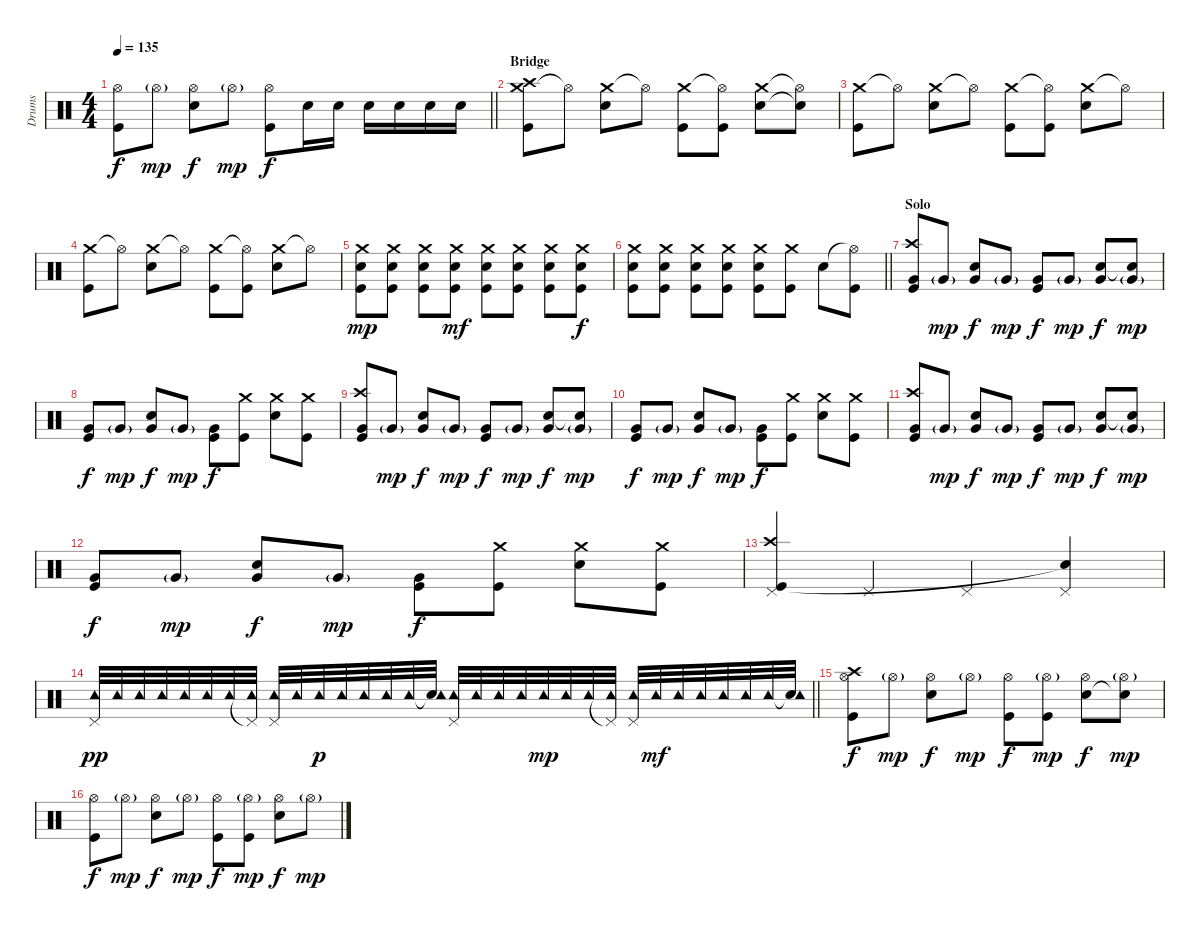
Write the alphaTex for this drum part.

\track ("Drums" "Drums") {instrument percussion}
\staff {score}
\articulation defaults
\ts (4 4)
\tempo 135
\clef neutral
\barLineRight lightlight
\ks c
("Hi-Hat (open)" "Kick (hit)").8{dy f} "Hi-Hat (open)"{g}.8{dy mp} ("Hi-Hat (open)" "Electric Snare (hit)").8{dy f} "Hi-Hat (open)"{g}.8{dy mp} ("Hi-Hat (open)" "Kick (hit)").8{dy f} "Electric Snare (hit)".16 "Electric Snare (hit)".16 "Electric Snare (hit)".16 "Electric Snare (hit)".16 "Electric Snare (hit)".16 "Electric Snare (hit)".16 |
\section ("" "Bridge")
("Crash medium (hit)" "Kick (hit)" "Crash high (hit)").8 "Hi-Hat (open)"{t}.8 ("Crash medium (hit)" "Electric Snare (hit)").8 "Hi-Hat (open)"{t}.8 ("Crash medium (hit)" "Kick (hit)").8 ("Hi-Hat (open)"{t} "Kick (hit)").8 ("Crash medium (hit)" "Electric Snare (hit)").8 ("Hi-Hat (open)"{t} "Snare (hit)"{t}).8 |
("Crash medium (hit)" "Kick (hit)").8 "Hi-Hat (open)"{t}.8 ("Crash medium (hit)" "Electric Snare (hit)").8 "Hi-Hat (open)"{t}.8 ("Crash medium (hit)" "Kick (hit)").8 ("Hi-Hat (open)"{t} "Kick (hit)").8 ("Crash medium (hit)" "Electric Snare (hit)").8 "Hi-Hat (open)"{t}.8 |
("Crash medium (hit)" "Kick (hit)").8 "Hi-Hat (open)"{t}.8 ("Crash medium (hit)" "Electric Snare (hit)").8 "Hi-Hat (open)"{t}.8 ("Crash medium (hit)" "Kick (hit)").8 ("Hi-Hat (open)"{t} "Kick (hit)").8 ("Crash medium (hit)" "Electric Snare (hit)").8 "Hi-Hat (open)"{t}.8 |
("Crash medium (hit)" "Electric Snare (hit)" "Kick (hit)").8{dy mp} ("Crash medium (hit)" "Electric Snare (hit)" "Kick (hit)").8 ("Crash medium (hit)" "Electric Snare (hit)" "Kick (hit)").8 ("Crash medium (hit)" "Electric Snare (hit)" "Kick (hit)").8{dy mf} ("Crash medium (hit)" "Electric Snare (hit)" "Kick (hit)").8 ("Crash medium (hit)" "Electric Snare (hit)" "Kick (hit)").8 ("Crash medium (hit)" "Electric Snare (hit)" "Kick (hit)").8 ("Crash medium (hit)" "Electric Snare (hit)" "Kick (hit)").8{dy f} |
\barLineRight lightlight
("Crash medium (hit)" "Electric Snare (hit)" "Kick (hit)").8 ("Crash medium (hit)" "Electric Snare (hit)" "Kick (hit)").8 ("Crash medium (hit)" "Electric Snare (hit)" "Kick (hit)").8 ("Crash medium (hit)" "Electric Snare (hit)" "Kick (hit)").8 ("Crash medium (hit)" "Electric Snare (hit)" "Kick (hit)").8 ("Crash medium (hit)" "Kick (hit)").8 "Electric Snare (hit)".8 ("Hi-Hat (open)"{t} "Kick (hit)").8 |
\section ("" "Solo")
("Very Low Tom (hit)" "Kick (hit)" "Crash high (hit)").8 "Very Low Tom (hit)"{g}.8{dy mp} ("Very Low Tom (hit)" "Electric Snare (hit)").8{dy f} "Very Low Tom (hit)"{g}.8{dy mp} ("Very Low Tom (hit)" "Kick (hit)").8{dy f} "Very Low Tom (hit)"{g}.8{dy mp} ("Very Low Tom (hit)" "Electric Snare (hit)").8{dy f} ("Very Low Tom (hit)"{g} "Snare (hit)"{t}).8{dy mp} |
("Very Low Tom (hit)" "Kick (hit)").8{dy f} "Very Low Tom (hit)"{g}.8{dy mp} ("Very Low Tom (hit)" "Electric Snare (hit)").8{dy f} "Very Low Tom (hit)"{g}.8{dy mp} ("Very Low Tom (hit)" "Kick (hit)").8{dy f} ("Kick (hit)" "Crash medium (hit)").8 ("Electric Snare (hit)" "Crash medium (hit)").8 ("Kick (hit)" "Crash medium (hit)").8 |
("Very Low Tom (hit)" "Kick (hit)" "Crash high (hit)").8 "Very Low Tom (hit)"{g}.8{dy mp} ("Very Low Tom (hit)" "Electric Snare (hit)").8{dy f} "Very Low Tom (hit)"{g}.8{dy mp} ("Very Low Tom (hit)" "Kick (hit)").8{dy f} "Very Low Tom (hit)"{g}.8{dy mp} ("Very Low Tom (hit)" "Electric Snare (hit)").8{dy f} ("Very Low Tom (hit)"{g} "Snare (hit)"{t}).8{dy mp} |
("Very Low Tom (hit)" "Kick (hit)").8{dy f} "Very Low Tom (hit)"{g}.8{dy mp} ("Very Low Tom (hit)" "Electric Snare (hit)").8{dy f} "Very Low Tom (hit)"{g}.8{dy mp} ("Very Low Tom (hit)" "Kick (hit)").8{dy f} ("Kick (hit)" "Crash medium (hit)").8 ("Electric Snare (hit)" "Crash medium (hit)").8 ("Kick (hit)" "Crash medium (hit)").8 |
("Very Low Tom (hit)" "Kick (hit)" "Crash high (hit)").8 "Very Low Tom (hit)"{g}.8{dy mp} ("Very Low Tom (hit)" "Electric Snare (hit)").8{dy f} "Very Low Tom (hit)"{g}.8{dy mp} ("Very Low Tom (hit)" "Kick (hit)").8{dy f} "Very Low Tom (hit)"{g}.8{dy mp} ("Very Low Tom (hit)" "Electric Snare (hit)").8{dy f} ("Very Low Tom (hit)"{g} "Snare (hit)"{t}).8{dy mp} |
("Very Low Tom (hit)" "Kick (hit)").8{dy f} "Very Low Tom (hit)"{g}.8{dy mp} ("Very Low Tom (hit)" "Electric Snare (hit)").8{dy f} "Very Low Tom (hit)"{g}.8{dy mp} ("Very Low Tom (hit)" "Kick (hit)").8{dy f} ("Kick (hit)" "Crash medium (hit)").8 ("Electric Snare (hit)" "Crash medium (hit)").8 ("Kick (hit)" "Crash medium (hit)").8 |
("Pedal Hi-Hat (hit)" "Kick (hit)" "Crash high (hit)").4 "Pedal Hi-Hat (hit)".4 "Pedal Hi-Hat (hit)".4 ("Pedal Hi-Hat (hit)" "Snare (hit)"{t}).4 |
\barLineRight lightlight
("Pedal Hi-Hat (hit)" "Tambourine (hit)").32{dy pp} "Tambourine (hit)".32 "Tambourine (hit)".32 "Tambourine (hit)".32 "Tambourine (hit)".32 "Tambourine (hit)".32 "Tambourine (hit)".32 ("Pedal Hi-Hat (hit)"{t} "Tambourine (hit)").32 ("Pedal Hi-Hat (hit)" "Tambourine (hit)").32 "Tambourine (hit)".32 "Tambourine (hit)".32{dy p} "Tambourine (hit)".32 "Tambourine (hit)".32 "Tambourine (hit)".32 "Tambourine (hit)".32 ("Snare (hit)"{t} "Tambourine (hit)").32 ("Pedal Hi-Hat (hit)" "Tambourine (hit)").32 "Tambourine (hit)".32 "Tambourine (hit)".32 "Tambourine (hit)".32 "Tambourine (hit)".32{dy mp} "Tambourine (hit)".32 "Tambourine (hit)".32 ("Pedal Hi-Hat (hit)"{t} "Tambourine (hit)").32 ("Pedal Hi-Hat (hit)" "Tambourine (hit)").32 "Tambourine (hit)".32{dy mf} "Tambourine (hit)".32 "Tambourine (hit)".32 "Tambourine (hit)".32 "Tambourine (hit)".32 "Tambourine (hit)".32 ("Snare (hit)"{t} "Tambourine (hit)").32 |
("Hi-Hat (open)" "Kick (hit)" "Crash high (hit)").8{dy f} "Hi-Hat (open)"{g}.8{dy mp} ("Hi-Hat (open)" "Electric Snare (hit)").8{dy f} "Hi-Hat (open)"{g}.8{dy mp} ("Hi-Hat (open)" "Kick (hit)").8{dy f} ("Hi-Hat (open)"{g} "Kick (hit)").8{dy mp} ("Hi-Hat (open)" "Electric Snare (hit)").8{dy f} ("Hi-Hat (open)"{g} "Snare (hit)"{t}).8{dy mp} |
("Hi-Hat (open)" "Kick (hit)").8{dy f} "Hi-Hat (open)"{g}.8{dy mp} ("Hi-Hat (open)" "Electric Snare (hit)").8{dy f} "Hi-Hat (open)"{g}.8{dy mp} ("Hi-Hat (open)" "Kick (hit)").8{dy f} ("Hi-Hat (open)"{g} "Kick (hit)").8{dy mp} ("Hi-Hat (open)" "Electric Snare (hit)").8{dy f} "Hi-Hat (open)"{g}.8{dy mp}
